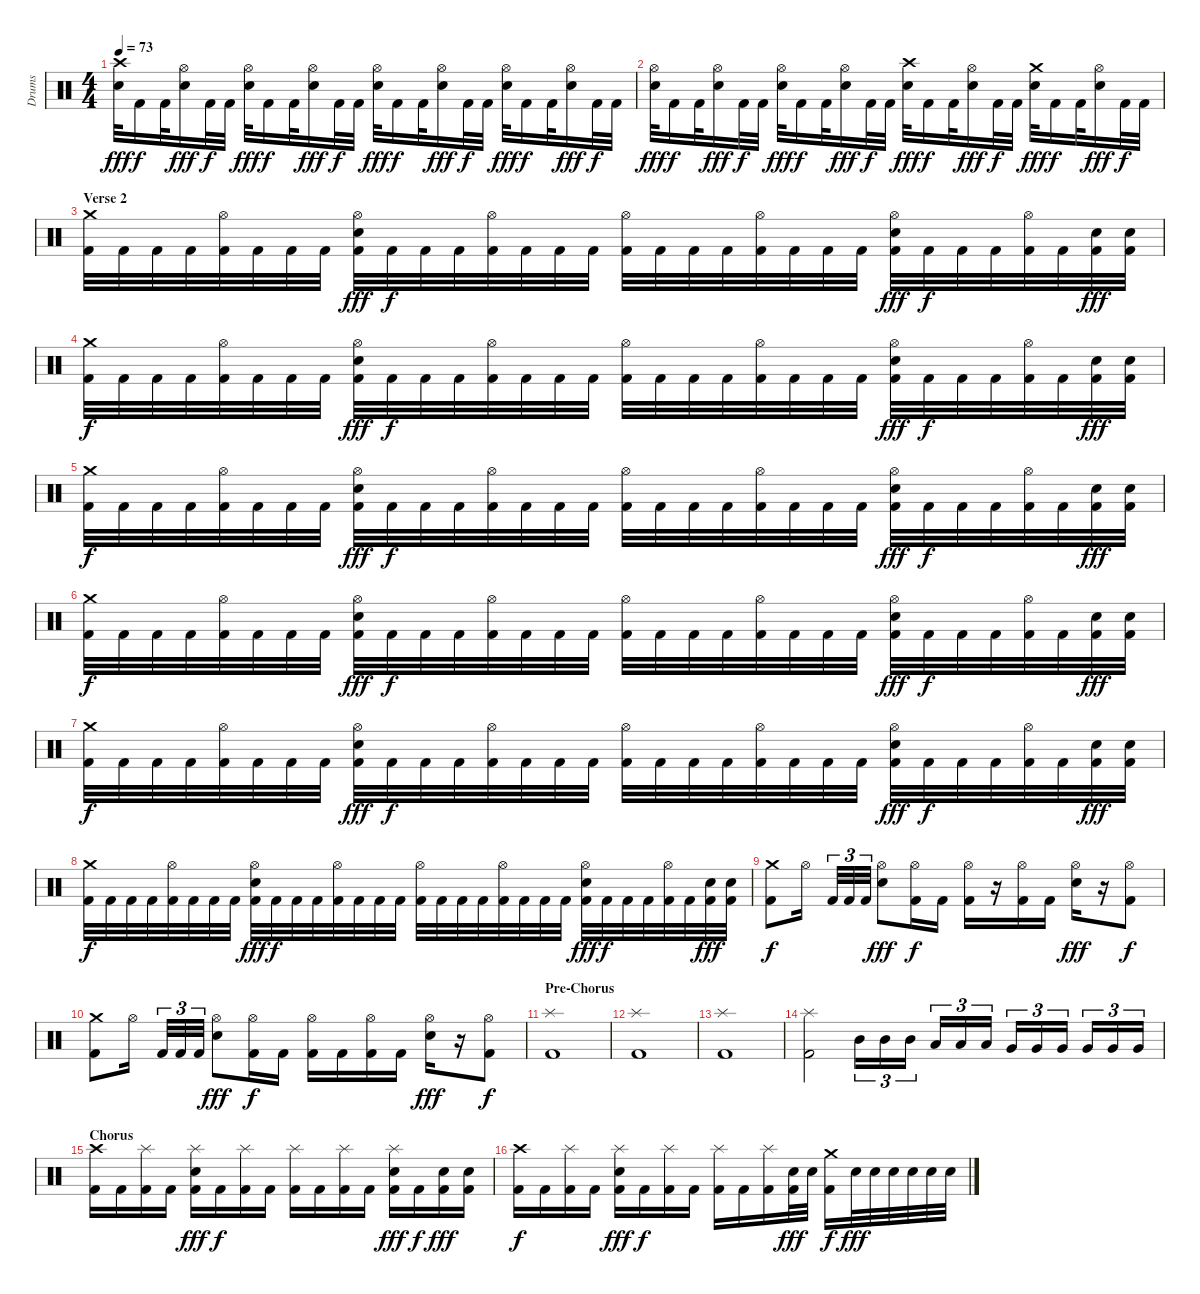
\track ("Drums" "Drums") {instrument percussion}
\staff {score}
\articulation defaults
\ts (4 4)
\tempo 73
\clef neutral
\ks c
("Crash high (hit)" "Snare (hit) 2").32{dy fff} "Kick (hit) 2".16{dy f} "Kick (hit) 2".32 ("Hi-Hat (open)" "Snare (hit) 2").16{dy fff} "Kick (hit) 2".32{dy f} "Kick (hit) 2".32 ("Hi-Hat (open)" "Snare (hit) 2").32{dy fff} "Kick (hit) 2".16{dy f} "Kick (hit) 2".32 ("Hi-Hat (open)" "Snare (hit) 2").16{dy fff} "Kick (hit) 2".32{dy f} "Kick (hit) 2".32 ("Hi-Hat (open)" "Snare (hit) 2").32{dy fff} "Kick (hit) 2".16{dy f} "Kick (hit) 2".32 ("Hi-Hat (open)" "Snare (hit) 2").16{dy fff} "Kick (hit) 2".32{dy f} "Kick (hit) 2".32 ("Hi-Hat (open)" "Snare (hit) 2").32{dy fff} "Kick (hit) 2".16{dy f} "Kick (hit) 2".32 ("Hi-Hat (open)" "Snare (hit) 2").16{dy fff} "Kick (hit) 2".32{dy f} "Kick (hit) 2".32 |
("Hi-Hat (open)" "Snare (hit) 2").32{dy fff} "Kick (hit) 2".16{dy f} "Kick (hit) 2".32 ("Hi-Hat (open)" "Snare (hit) 2").16{dy fff} "Kick (hit) 2".32{dy f} "Kick (hit) 2".32 ("Hi-Hat (open)" "Snare (hit) 2").32{dy fff} "Kick (hit) 2".16{dy f} "Kick (hit) 2".32 ("Hi-Hat (open)" "Snare (hit) 2").16{dy fff} "Kick (hit) 2".32{dy f} "Kick (hit) 2".32 ("Crash high (hit)" "Snare (hit) 2").32{dy fff} "Kick (hit) 2".16{dy f} "Kick (hit) 2".32 ("Hi-Hat (open)" "Snare (hit) 2").16{dy fff} "Kick (hit) 2".32{dy f} "Kick (hit) 2".32 ("Crash medium (hit)" "Snare (hit) 2").32{dy fff} "Kick (hit) 2".16{dy f} "Kick (hit) 2".32 ("Hi-Hat (open)" "Snare (hit) 2").16{dy fff} "Kick (hit) 2".32{dy f} "Kick (hit) 2".32 |
\section ("" "Verse 2")
("Crash medium (hit)" "Kick (hit) 2").32 "Kick (hit) 2".32 "Kick (hit) 2".32 "Kick (hit) 2".32 ("Hi-Hat (open)" "Kick (hit) 2").32 "Kick (hit) 2".32 "Kick (hit) 2".32 "Kick (hit) 2".32 ("Hi-Hat (open)" "Snare (hit) 2" "Kick (hit) 2").32{dy fff} "Kick (hit) 2".32{dy f} "Kick (hit) 2".32 "Kick (hit) 2".32 ("Hi-Hat (open)" "Kick (hit) 2").32 "Kick (hit) 2".32 "Kick (hit) 2".32 "Kick (hit) 2".32 ("Hi-Hat (open)" "Kick (hit) 2").32 "Kick (hit) 2".32 "Kick (hit) 2".32 "Kick (hit) 2".32 ("Hi-Hat (open)" "Kick (hit) 2").32 "Kick (hit) 2".32 "Kick (hit) 2".32 "Kick (hit) 2".32 ("Hi-Hat (open)" "Snare (hit) 2" "Kick (hit) 2").32{dy fff} "Kick (hit) 2".32{dy f} "Kick (hit) 2".32 "Kick (hit) 2".32 ("Hi-Hat (open)" "Kick (hit) 2").32 "Kick (hit) 2".32 ("Snare (hit) 2" "Kick (hit) 2").32{dy fff} ("Snare (hit) 2" "Kick (hit) 2").32 |
("Crash medium (hit)" "Kick (hit) 2").32{dy f} "Kick (hit) 2".32 "Kick (hit) 2".32 "Kick (hit) 2".32 ("Hi-Hat (open)" "Kick (hit) 2").32 "Kick (hit) 2".32 "Kick (hit) 2".32 "Kick (hit) 2".32 ("Hi-Hat (open)" "Snare (hit) 2" "Kick (hit) 2").32{dy fff} "Kick (hit) 2".32{dy f} "Kick (hit) 2".32 "Kick (hit) 2".32 ("Hi-Hat (open)" "Kick (hit) 2").32 "Kick (hit) 2".32 "Kick (hit) 2".32 "Kick (hit) 2".32 ("Hi-Hat (open)" "Kick (hit) 2").32 "Kick (hit) 2".32 "Kick (hit) 2".32 "Kick (hit) 2".32 ("Hi-Hat (open)" "Kick (hit) 2").32 "Kick (hit) 2".32 "Kick (hit) 2".32 "Kick (hit) 2".32 ("Hi-Hat (open)" "Snare (hit) 2" "Kick (hit) 2").32{dy fff} "Kick (hit) 2".32{dy f} "Kick (hit) 2".32 "Kick (hit) 2".32 ("Hi-Hat (open)" "Kick (hit) 2").32 "Kick (hit) 2".32 ("Snare (hit) 2" "Kick (hit) 2").32{dy fff} ("Snare (hit) 2" "Kick (hit) 2").32 |
("Crash medium (hit)" "Kick (hit) 2").32{dy f} "Kick (hit) 2".32 "Kick (hit) 2".32 "Kick (hit) 2".32 ("Hi-Hat (open)" "Kick (hit) 2").32 "Kick (hit) 2".32 "Kick (hit) 2".32 "Kick (hit) 2".32 ("Hi-Hat (open)" "Snare (hit) 2" "Kick (hit) 2").32{dy fff} "Kick (hit) 2".32{dy f} "Kick (hit) 2".32 "Kick (hit) 2".32 ("Hi-Hat (open)" "Kick (hit) 2").32 "Kick (hit) 2".32 "Kick (hit) 2".32 "Kick (hit) 2".32 ("Hi-Hat (open)" "Kick (hit) 2").32 "Kick (hit) 2".32 "Kick (hit) 2".32 "Kick (hit) 2".32 ("Hi-Hat (open)" "Kick (hit) 2").32 "Kick (hit) 2".32 "Kick (hit) 2".32 "Kick (hit) 2".32 ("Hi-Hat (open)" "Snare (hit) 2" "Kick (hit) 2").32{dy fff} "Kick (hit) 2".32{dy f} "Kick (hit) 2".32 "Kick (hit) 2".32 ("Hi-Hat (open)" "Kick (hit) 2").32 "Kick (hit) 2".32 ("Snare (hit) 2" "Kick (hit) 2").32{dy fff} ("Snare (hit) 2" "Kick (hit) 2").32 |
("Crash medium (hit)" "Kick (hit) 2").32{dy f} "Kick (hit) 2".32 "Kick (hit) 2".32 "Kick (hit) 2".32 ("Hi-Hat (open)" "Kick (hit) 2").32 "Kick (hit) 2".32 "Kick (hit) 2".32 "Kick (hit) 2".32 ("Hi-Hat (open)" "Snare (hit) 2" "Kick (hit) 2").32{dy fff} "Kick (hit) 2".32{dy f} "Kick (hit) 2".32 "Kick (hit) 2".32 ("Hi-Hat (open)" "Kick (hit) 2").32 "Kick (hit) 2".32 "Kick (hit) 2".32 "Kick (hit) 2".32 ("Hi-Hat (open)" "Kick (hit) 2").32 "Kick (hit) 2".32 "Kick (hit) 2".32 "Kick (hit) 2".32 ("Hi-Hat (open)" "Kick (hit) 2").32 "Kick (hit) 2".32 "Kick (hit) 2".32 "Kick (hit) 2".32 ("Hi-Hat (open)" "Snare (hit) 2" "Kick (hit) 2").32{dy fff} "Kick (hit) 2".32{dy f} "Kick (hit) 2".32 "Kick (hit) 2".32 ("Hi-Hat (open)" "Kick (hit) 2").32 "Kick (hit) 2".32 ("Snare (hit) 2" "Kick (hit) 2").32{dy fff} ("Snare (hit) 2" "Kick (hit) 2").32 |
("Crash medium (hit)" "Kick (hit) 2").32{dy f} "Kick (hit) 2".32 "Kick (hit) 2".32 "Kick (hit) 2".32 ("Hi-Hat (open)" "Kick (hit) 2").32 "Kick (hit) 2".32 "Kick (hit) 2".32 "Kick (hit) 2".32 ("Hi-Hat (open)" "Snare (hit) 2" "Kick (hit) 2").32{dy fff} "Kick (hit) 2".32{dy f} "Kick (hit) 2".32 "Kick (hit) 2".32 ("Hi-Hat (open)" "Kick (hit) 2").32 "Kick (hit) 2".32 "Kick (hit) 2".32 "Kick (hit) 2".32 ("Hi-Hat (open)" "Kick (hit) 2").32 "Kick (hit) 2".32 "Kick (hit) 2".32 "Kick (hit) 2".32 ("Hi-Hat (open)" "Kick (hit) 2").32 "Kick (hit) 2".32 "Kick (hit) 2".32 "Kick (hit) 2".32 ("Hi-Hat (open)" "Snare (hit) 2" "Kick (hit) 2").32{dy fff} "Kick (hit) 2".32{dy f} "Kick (hit) 2".32 "Kick (hit) 2".32 ("Hi-Hat (open)" "Kick (hit) 2").32 "Kick (hit) 2".32 ("Snare (hit) 2" "Kick (hit) 2").32{dy fff} ("Snare (hit) 2" "Kick (hit) 2").32 |
("Crash medium (hit)" "Kick (hit) 2").32{dy f} "Kick (hit) 2".32 "Kick (hit) 2".32 "Kick (hit) 2".32 ("Hi-Hat (open)" "Kick (hit) 2").32 "Kick (hit) 2".32 "Kick (hit) 2".32 "Kick (hit) 2".32 ("Hi-Hat (open)" "Snare (hit) 2" "Kick (hit) 2").32{dy fff} "Kick (hit) 2".32{dy f} "Kick (hit) 2".32 "Kick (hit) 2".32 ("Hi-Hat (open)" "Kick (hit) 2").32 "Kick (hit) 2".32 "Kick (hit) 2".32 "Kick (hit) 2".32 ("Hi-Hat (open)" "Kick (hit) 2").32 "Kick (hit) 2".32 "Kick (hit) 2".32 "Kick (hit) 2".32 ("Hi-Hat (open)" "Kick (hit) 2").32 "Kick (hit) 2".32 "Kick (hit) 2".32 "Kick (hit) 2".32 ("Hi-Hat (open)" "Snare (hit) 2" "Kick (hit) 2").32{dy fff} "Kick (hit) 2".32{dy f} "Kick (hit) 2".32 "Kick (hit) 2".32 ("Hi-Hat (open)" "Kick (hit) 2").32 "Kick (hit) 2".32 ("Snare (hit) 2" "Kick (hit) 2").32{dy fff} ("Snare (hit) 2" "Kick (hit) 2").32 |
("Crash medium (hit)" "Kick (hit) 2").8{dy f} "Hi-Hat (open)".16 "Kick (hit) 2".32{tu (3 2)} "Kick (hit) 2".32{tu (3 2)} "Kick (hit) 2".32{tu (3 2)} ("Hi-Hat (open)" "Snare (hit) 2").8{dy fff} ("Hi-Hat (open)" "Kick (hit) 2").16{dy f} "Kick (hit) 2".16 ("Hi-Hat (open)" "Kick (hit) 2").16 r.16 ("Hi-Hat (open)" "Kick (hit) 2").16 "Kick (hit) 2".16 ("Hi-Hat (open)" "Snare (hit) 2").16{dy fff} r.16 ("Hi-Hat (open)" "Kick (hit) 2").8{dy f} |
("Crash medium (hit)" "Kick (hit) 2").8 "Hi-Hat (open)".16 "Kick (hit) 2".32{tu (3 2)} "Kick (hit) 2".32{tu (3 2)} "Kick (hit) 2".32{tu (3 2)} ("Hi-Hat (open)" "Snare (hit) 2").8{dy fff} ("Hi-Hat (open)" "Kick (hit) 2").16{dy f} "Kick (hit) 2".16 ("Hi-Hat (open)" "Kick (hit) 2").16 "Kick (hit) 2".16 ("Hi-Hat (open)" "Kick (hit) 2").16 "Kick (hit) 2".16 ("Hi-Hat (open)" "Snare (hit) 2").16{dy fff} r.16 ("Hi-Hat (open)" "Kick (hit) 2").8{dy f} |
\section ("" "Pre-Chorus")
("Splash (hit)" "Kick (hit) 2").1 |
("Splash (hit)" "Kick (hit) 2").1 |
("Splash (hit)" "Kick (hit) 2").1 |
("Splash (hit)" "Kick (hit) 2").2 "Mid Tom (hit)".16{tu (3 2)} "Mid Tom (hit)".16{tu (3 2)} "Mid Tom (hit)".16{tu (3 2)} "Low Tom (hit)".16{tu (3 2)} "Low Tom (hit)".16{tu (3 2)} "Low Tom (hit)".16{tu (3 2)} "Very Low Tom (hit)".16{tu (3 2)} "Very Low Tom (hit)".16{tu (3 2)} "Very Low Tom (hit)".16{tu (3 2)} "Very Low Tom (hit)".16{tu (3 2)} "Very Low Tom (hit)".16{tu (3 2)} "Very Low Tom (hit)".16{tu (3 2)} |
\section ("" "Chorus")
("Crash high (hit)" "Kick (hit) 2").16 "Kick (hit) 2".16 ("Splash (hit)" "Kick (hit) 2").16 "Kick (hit) 2".16 ("Splash (hit)" "Snare (hit) 2" "Kick (hit) 2").16{dy fff} "Kick (hit) 2".16{dy f} ("Splash (hit)" "Kick (hit) 2").16 "Kick (hit) 2".16 ("Splash (hit)" "Kick (hit) 2").16 "Kick (hit) 2".16 ("Splash (hit)" "Kick (hit) 2").16 "Kick (hit) 2".16 ("Splash (hit)" "Snare (hit) 2" "Kick (hit) 2").16{dy fff} "Kick (hit) 2".16{dy f} ("Snare (hit) 2" "Kick (hit) 2").16{dy fff} ("Snare (hit) 2" "Kick (hit) 2").16 |
("Crash high (hit)" "Kick (hit) 2").16{dy f} "Kick (hit) 2".16 ("Splash (hit)" "Kick (hit) 2").16 "Kick (hit) 2".16 ("Splash (hit)" "Snare (hit) 2" "Kick (hit) 2").16{dy fff} "Kick (hit) 2".16{dy f} ("Splash (hit)" "Kick (hit) 2").16 "Kick (hit) 2".16 ("Splash (hit)" "Kick (hit) 2").16 "Kick (hit) 2".16 ("Splash (hit)" "Kick (hit) 2").16 ("Snare (hit) 2" "Kick (hit) 2").32{dy fff} "Snare (hit) 2".32 ("Crash medium (hit)" "Kick (hit) 2").16{dy f} "Snare (hit) 2".32{dy fff} "Snare (hit) 2".32 "Snare (hit) 2".32 "Snare (hit) 2".32 "Snare (hit) 2".32 "Snare (hit) 2".32
